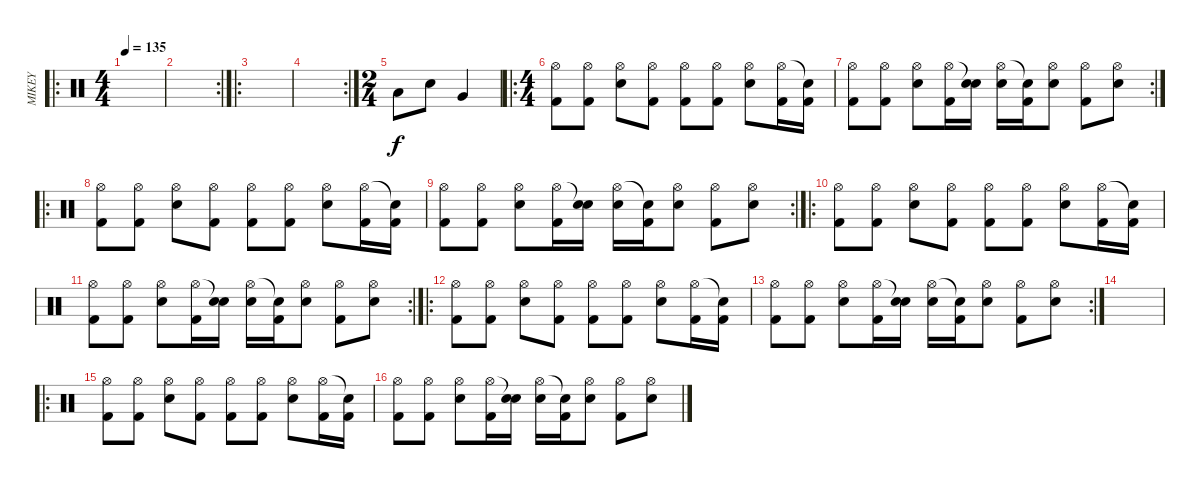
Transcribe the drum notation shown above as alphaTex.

\track ("MIKEY" "MIKEY") {instrument percussion}
\staff {score}
\articulation defaults
\ro
\ts (4 4)
\tempo 135
\clef neutral
\ks c
|
\rc 2
|
\ro
|
\rc 2
|
\ts (2 4)
"Low Tom (hit)".8 "Electric Snare (hit)".8 "Very Low Tom (hit)".4{dy f} |
\ro
\ts (4 4)
("Hi-Hat (open)" "Kick (hit) 2").8 ("Hi-Hat (open)" "Kick (hit) 2").8 ("Hi-Hat (open)" "Electric Snare (hit)").8 ("Hi-Hat (open)" "Kick (hit) 2").8 ("Hi-Hat (open)" "Kick (hit) 2").8 ("Hi-Hat (open)" "Kick (hit) 2").8 ("Hi-Hat (open)" "Electric Snare (hit)").8 ("Hi-Hat (open)" "Kick (hit) 2").16 ("Snare (hit)"{t} "Kick (hit) 2").16 |
\rc 2
("Hi-Hat (open)" "Kick (hit) 2").8 ("Hi-Hat (open)" "Kick (hit) 2").8 ("Hi-Hat (open)" "Electric Snare (hit)").8 ("Hi-Hat (open)" "Kick (hit) 2").16 ("Snare (hit)"{t} "Electric Snare (hit)").16 ("Hi-Hat (open)" "Electric Snare (hit)").16 ("Snare (hit)"{t} "Kick (hit) 2").16 ("Hi-Hat (open)" "Electric Snare (hit)").8 ("Hi-Hat (open)" "Kick (hit) 2").8 ("Hi-Hat (open)" "Electric Snare (hit)").8 |
\ro
("Hi-Hat (open)" "Kick (hit) 2").8 ("Hi-Hat (open)" "Kick (hit) 2").8 ("Hi-Hat (open)" "Electric Snare (hit)").8 ("Hi-Hat (open)" "Kick (hit) 2").8 ("Hi-Hat (open)" "Kick (hit) 2").8 ("Hi-Hat (open)" "Kick (hit) 2").8 ("Hi-Hat (open)" "Electric Snare (hit)").8 ("Hi-Hat (open)" "Kick (hit) 2").16 ("Snare (hit)"{t} "Kick (hit) 2").16 |
\rc 2
("Hi-Hat (open)" "Kick (hit) 2").8 ("Hi-Hat (open)" "Kick (hit) 2").8 ("Hi-Hat (open)" "Electric Snare (hit)").8 ("Hi-Hat (open)" "Kick (hit) 2").16 ("Snare (hit)"{t} "Electric Snare (hit)").16 ("Hi-Hat (open)" "Electric Snare (hit)").16 ("Snare (hit)"{t} "Kick (hit) 2").16 ("Hi-Hat (open)" "Electric Snare (hit)").8 ("Hi-Hat (open)" "Kick (hit) 2").8 ("Hi-Hat (open)" "Electric Snare (hit)").8 |
\ro
("Hi-Hat (open)" "Kick (hit) 2").8 ("Hi-Hat (open)" "Kick (hit) 2").8 ("Hi-Hat (open)" "Electric Snare (hit)").8 ("Hi-Hat (open)" "Kick (hit) 2").8 ("Hi-Hat (open)" "Kick (hit) 2").8 ("Hi-Hat (open)" "Kick (hit) 2").8 ("Hi-Hat (open)" "Electric Snare (hit)").8 ("Hi-Hat (open)" "Kick (hit) 2").16 ("Snare (hit)"{t} "Kick (hit) 2").16 |
\rc 2
("Hi-Hat (open)" "Kick (hit) 2").8 ("Hi-Hat (open)" "Kick (hit) 2").8 ("Hi-Hat (open)" "Electric Snare (hit)").8 ("Hi-Hat (open)" "Kick (hit) 2").16 ("Snare (hit)"{t} "Electric Snare (hit)").16 ("Hi-Hat (open)" "Electric Snare (hit)").16 ("Snare (hit)"{t} "Kick (hit) 2").16 ("Hi-Hat (open)" "Electric Snare (hit)").8 ("Hi-Hat (open)" "Kick (hit) 2").8 ("Hi-Hat (open)" "Electric Snare (hit)").8 |
\ro
("Hi-Hat (open)" "Kick (hit) 2").8 ("Hi-Hat (open)" "Kick (hit) 2").8 ("Hi-Hat (open)" "Electric Snare (hit)").8 ("Hi-Hat (open)" "Kick (hit) 2").8 ("Hi-Hat (open)" "Kick (hit) 2").8 ("Hi-Hat (open)" "Kick (hit) 2").8 ("Hi-Hat (open)" "Electric Snare (hit)").8 ("Hi-Hat (open)" "Kick (hit) 2").16 ("Snare (hit)"{t} "Kick (hit) 2").16 |
\rc 2
("Hi-Hat (open)" "Kick (hit) 2").8 ("Hi-Hat (open)" "Kick (hit) 2").8 ("Hi-Hat (open)" "Electric Snare (hit)").8 ("Hi-Hat (open)" "Kick (hit) 2").16 ("Snare (hit)"{t} "Electric Snare (hit)").16 ("Hi-Hat (open)" "Electric Snare (hit)").16 ("Snare (hit)"{t} "Kick (hit) 2").16 ("Hi-Hat (open)" "Electric Snare (hit)").8 ("Hi-Hat (open)" "Kick (hit) 2").8 ("Hi-Hat (open)" "Electric Snare (hit)").8 |
|
\ro
("Hi-Hat (open)" "Kick (hit) 2").8 ("Hi-Hat (open)" "Kick (hit) 2").8 ("Hi-Hat (open)" "Electric Snare (hit)").8 ("Hi-Hat (open)" "Kick (hit) 2").8 ("Hi-Hat (open)" "Kick (hit) 2").8 ("Hi-Hat (open)" "Kick (hit) 2").8 ("Hi-Hat (open)" "Electric Snare (hit)").8 ("Hi-Hat (open)" "Kick (hit) 2").16 ("Snare (hit)"{t} "Kick (hit) 2").16 |
("Hi-Hat (open)" "Kick (hit) 2").8 ("Hi-Hat (open)" "Kick (hit) 2").8 ("Hi-Hat (open)" "Electric Snare (hit)").8 ("Hi-Hat (open)" "Kick (hit) 2").16 ("Snare (hit)"{t} "Electric Snare (hit)").16 ("Hi-Hat (open)" "Electric Snare (hit)").16 ("Snare (hit)"{t} "Kick (hit) 2").16 ("Hi-Hat (open)" "Electric Snare (hit)").8 ("Hi-Hat (open)" "Kick (hit) 2").8 ("Hi-Hat (open)" "Electric Snare (hit)").8
